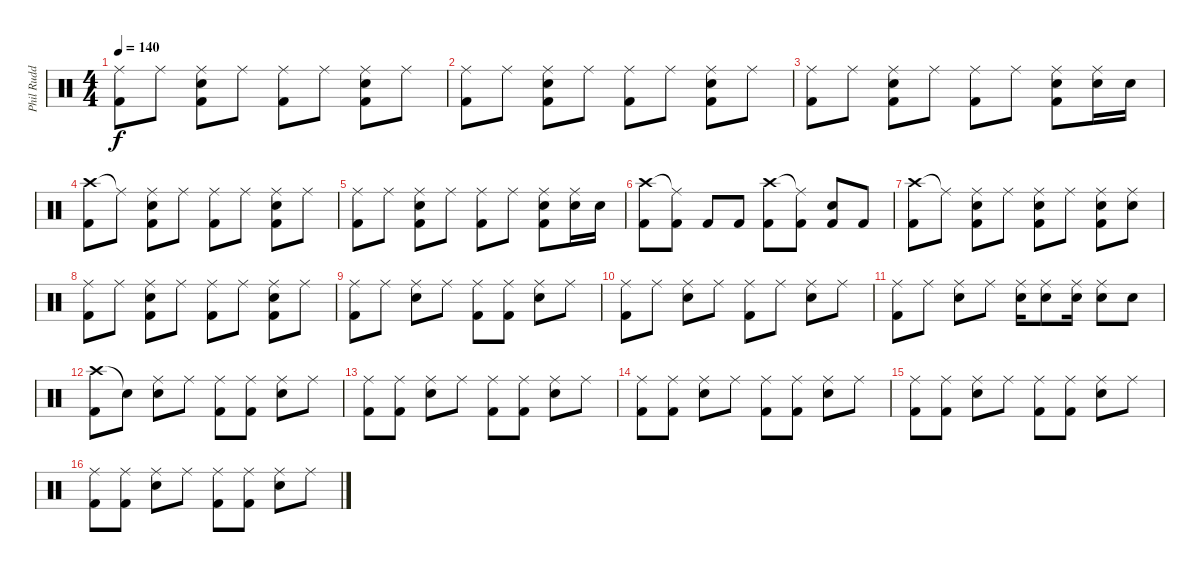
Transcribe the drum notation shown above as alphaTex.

\track ("Phil Rudd" "Phil Rudd") {instrument percussion}
\staff {score}
\articulation defaults
\ts (4 4)
\tempo 140
\clef neutral
\ks c
("Ride (middle)" "Kick (hit) 2").8{dy f} "Ride (middle)".8 ("Ride (middle)" "Electric Snare (hit)" "Kick (hit) 2").8 "Ride (middle)".8 ("Ride (middle)" "Kick (hit) 2").8 "Ride (middle)".8 ("Ride (middle)" "Electric Snare (hit)" "Kick (hit) 2").8 "Ride (middle)".8 |
("Ride (middle)" "Kick (hit) 2").8 "Ride (middle)".8 ("Ride (middle)" "Electric Snare (hit)" "Kick (hit) 2").8 "Ride (middle)".8 ("Ride (middle)" "Kick (hit) 2").8 "Ride (middle)".8 ("Ride (middle)" "Electric Snare (hit)" "Kick (hit) 2").8 "Ride (middle)".8 |
("Ride (middle)" "Kick (hit) 2").8 "Ride (middle)".8 ("Ride (middle)" "Electric Snare (hit)" "Kick (hit) 2").8 "Ride (middle)".8 ("Ride (middle)" "Kick (hit) 2").8 "Ride (middle)".8 ("Ride (middle)" "Electric Snare (hit)" "Kick (hit) 2").8 ("Ride (middle)" "Electric Snare (hit)").16 "Electric Snare (hit)".16 |
("Crash high (hit)" "Kick (hit) 2").8 "Ride (middle)"{t}.8 ("Ride (middle)" "Electric Snare (hit)" "Kick (hit) 2").8 "Ride (middle)".8 ("Ride (middle)" "Kick (hit) 2").8 "Ride (middle)".8 ("Ride (middle)" "Electric Snare (hit)" "Kick (hit) 2").8 "Ride (middle)".8 |
("Ride (middle)" "Kick (hit) 2").8 "Ride (middle)".8 ("Ride (middle)" "Electric Snare (hit)" "Kick (hit) 2").8 "Ride (middle)".8 ("Ride (middle)" "Kick (hit) 2").8 "Ride (middle)".8 ("Ride (middle)" "Electric Snare (hit)" "Kick (hit) 2").8 ("Ride (middle)" "Electric Snare (hit)").16 "Electric Snare (hit)".16 |
("Crash high (hit)" "Kick (hit) 2").8 ("Ride (middle)"{t} "Kick (hit) 2").8 "Kick (hit) 2".8 "Kick (hit) 2".8 ("Crash high (hit)" "Kick (hit) 2").8 ("Ride (middle)"{t} "Kick (hit) 2").8 ("Electric Snare (hit)" "Kick (hit) 2").8 "Kick (hit) 2".8 |
("Crash high (hit)" "Kick (hit) 2").8 "Ride (middle)"{t}.8 ("Ride (middle)" "Electric Snare (hit)" "Kick (hit) 2").8 "Ride (middle)".8 ("Ride (middle)" "Electric Snare (hit)" "Kick (hit) 2").8 "Ride (middle)".8 ("Ride (middle)" "Electric Snare (hit)" "Kick (hit) 2").8 ("Ride (middle)" "Electric Snare (hit)").8 |
("Ride (middle)" "Kick (hit) 2").8 "Ride (middle)".8 ("Ride (middle)" "Electric Snare (hit)" "Kick (hit) 2").8 "Ride (middle)".8 ("Ride (middle)" "Kick (hit) 2").8 "Ride (middle)".8 ("Ride (middle)" "Electric Snare (hit)" "Kick (hit) 2").8 "Ride (middle)".8 |
("Ride (middle)" "Kick (hit) 2").8 "Ride (middle)".8 ("Ride (middle)" "Electric Snare (hit)").8 "Ride (middle)".8 ("Ride (middle)" "Kick (hit) 2").8 ("Ride (middle)" "Kick (hit) 2").8 ("Ride (middle)" "Electric Snare (hit)").8 "Ride (middle)".8 |
("Ride (middle)" "Kick (hit) 2").8 "Ride (middle)".8 ("Ride (middle)" "Electric Snare (hit)").8 "Ride (middle)".8 ("Ride (middle)" "Kick (hit) 2").8 "Ride (middle)".8 ("Ride (middle)" "Electric Snare (hit)").8 "Ride (middle)".8 |
("Ride (middle)" "Kick (hit) 2").8 "Ride (middle)".8 ("Ride (middle)" "Electric Snare (hit)").8 "Ride (middle)".8 ("Ride (middle)" "Electric Snare (hit)").16 ("Ride (middle)" "Electric Snare (hit)").8 ("Ride (middle)" "Electric Snare (hit)").16 ("Ride (middle)" "Electric Snare (hit)").8 "Electric Snare (hit)".8 |
("Crash high (hit)" "Kick (hit) 2").8 "Snare (hit)"{t}.8 ("Ride (middle)" "Electric Snare (hit)").8 "Ride (middle)".8 ("Ride (middle)" "Kick (hit) 2").8 ("Ride (middle)" "Kick (hit) 2").8 ("Ride (middle)" "Electric Snare (hit)").8 "Ride (middle)".8 |
("Ride (middle)" "Kick (hit) 2").8 ("Ride (middle)" "Kick (hit) 2").8 ("Ride (middle)" "Electric Snare (hit)").8 "Ride (middle)".8 ("Ride (middle)" "Kick (hit) 2").8 ("Ride (middle)" "Kick (hit) 2").8 ("Ride (middle)" "Electric Snare (hit)").8 "Ride (middle)".8 |
("Ride (middle)" "Kick (hit) 2").8 ("Ride (middle)" "Kick (hit) 2").8 ("Ride (middle)" "Electric Snare (hit)").8 "Ride (middle)".8 ("Ride (middle)" "Kick (hit) 2").8 ("Ride (middle)" "Kick (hit) 2").8 ("Ride (middle)" "Electric Snare (hit)").8 "Ride (middle)".8 |
("Ride (middle)" "Kick (hit) 2").8 ("Ride (middle)" "Kick (hit) 2").8 ("Ride (middle)" "Electric Snare (hit)").8 "Ride (middle)".8 ("Ride (middle)" "Kick (hit) 2").8 ("Ride (middle)" "Kick (hit) 2").8 ("Ride (middle)" "Electric Snare (hit)").8 "Ride (middle)".8 |
("Ride (middle)" "Kick (hit) 2").8 ("Ride (middle)" "Kick (hit) 2").8 ("Ride (middle)" "Electric Snare (hit)").8 "Ride (middle)".8 ("Ride (middle)" "Kick (hit) 2").8 ("Ride (middle)" "Kick (hit) 2").8 ("Ride (middle)" "Electric Snare (hit)").8 "Ride (middle)".8
